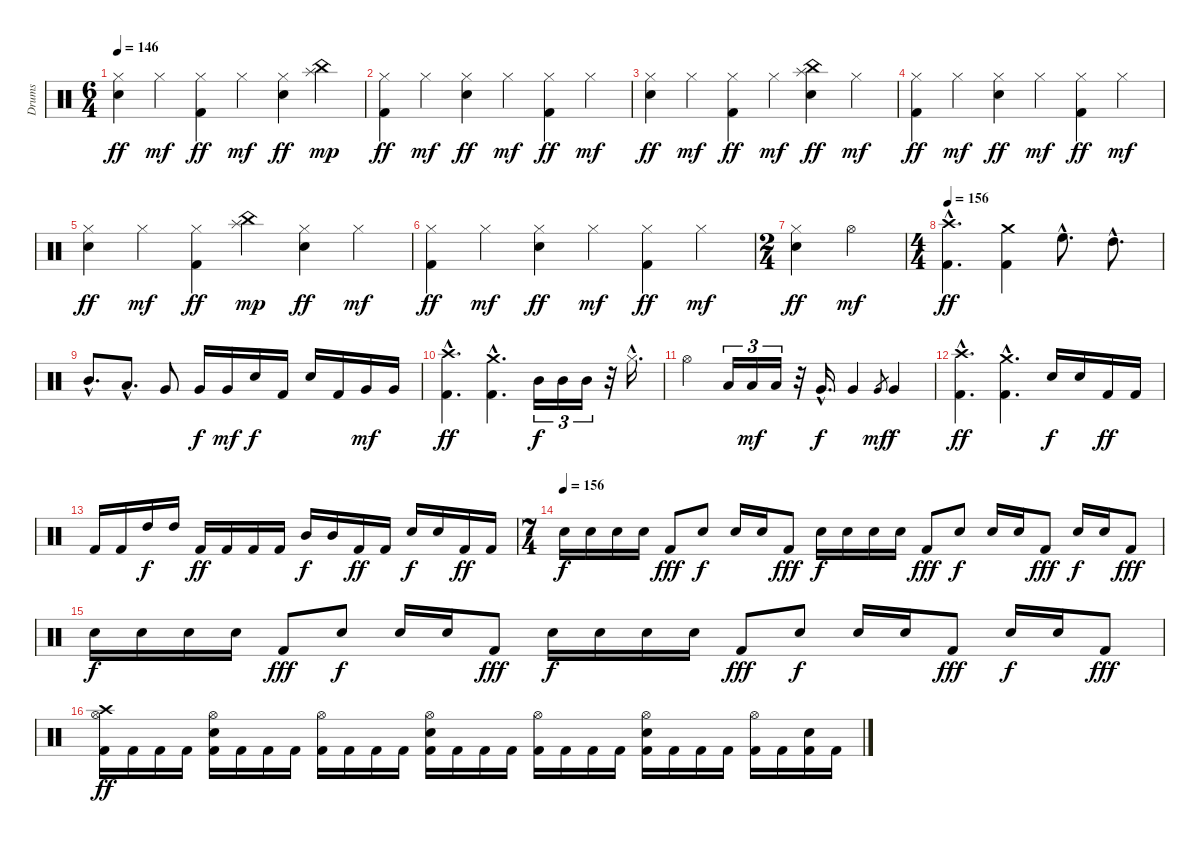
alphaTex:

\track ("Drums" "Drums") {instrument percussion}
\staff {score}
\articulation defaults
\ts (6 4)
\tempo 146
\clef neutral
\ks c
("Hi-Hat (closed)" "Electric Snare (hit)").4{dy ff} "Hi-Hat (closed)".4{dy mf} ("Hi-Hat (closed)" "Kick (hit) 2").4{dy ff} "Hi-Hat (closed)".4{dy mf} ("Hi-Hat (closed)" "Electric Snare (hit)").4{dy ff} ("Splash (hit)" "China (hit)").4{dy mp} |
("Hi-Hat (closed)" "Kick (hit) 2").4{dy ff} "Hi-Hat (closed)".4{dy mf} ("Hi-Hat (closed)" "Electric Snare (hit)").4{dy ff} "Hi-Hat (closed)".4{dy mf} ("Hi-Hat (closed)" "Kick (hit) 2").4{dy ff} "Hi-Hat (closed)".4{dy mf} |
("Hi-Hat (closed)" "Electric Snare (hit)").4{dy ff} "Hi-Hat (closed)".4{dy mf} ("Hi-Hat (closed)" "Kick (hit) 2").4{dy ff} "Hi-Hat (closed)".4{dy mf} ("Splash (hit)" "China (hit)" "Electric Snare (hit)").4{dy ff} "Hi-Hat (closed)".4{dy mf} |
("Hi-Hat (closed)" "Kick (hit) 2").4{dy ff} "Hi-Hat (closed)".4{dy mf} ("Hi-Hat (closed)" "Electric Snare (hit)").4{dy ff} "Hi-Hat (closed)".4{dy mf} ("Hi-Hat (closed)" "Kick (hit) 2").4{dy ff} "Hi-Hat (closed)".4{dy mf} |
("Hi-Hat (closed)" "Electric Snare (hit)").4{dy ff} "Hi-Hat (closed)".4{dy mf} ("Hi-Hat (closed)" "Kick (hit) 2").4{dy ff} ("Splash (hit)" "China (hit)").4{dy mp} ("Hi-Hat (closed)" "Electric Snare (hit)").4{dy ff} "Hi-Hat (closed)".4{dy mf} |
("Hi-Hat (closed)" "Kick (hit) 2").4{dy ff} "Hi-Hat (closed)".4{dy mf} ("Hi-Hat (closed)" "Electric Snare (hit)").4{dy ff} "Hi-Hat (closed)".4{dy mf} ("Hi-Hat (closed)" "Kick (hit) 2").4{dy ff} "Hi-Hat (closed)".4{dy mf} |
\ts (2 4)
("Hi-Hat (closed)" "Electric Snare (hit)").4{dy ff} "Hi-Hat (open)".4{dy mf} |
\ts (4 4)
\tempo 156
("Crash high (hit)"{hac} "Kick (hit) 2"{hac}).4{d dy ff} ("Crash medium (hit)" "Kick (hit) 2").4 "High Floor Tom (hit)"{hac}.8{d} "High Tom (hit)"{hac}.8{d} |
"Mid Tom (hit)"{hac}.8{d} "Low Tom (hit)"{hac}.8{d} "Very Low Tom (hit)".8 "Very Low Tom (hit)".16{dy f} "Very Low Tom (hit)".16{dy mf} "Electric Snare (hit)".16{dy f} "Kick (hit) 2".16 "Electric Snare (hit)".16 "Kick (hit) 2".16 "Very Low Tom (hit)".16{dy mf} "Very Low Tom (hit)".16 |
("Crash high (hit)"{hac} "Kick (hit) 2"{hac}).4{d dy ff} ("Crash medium (hit)"{hac} "Kick (hit) 2"{hac}).4{d} "Mid Tom (hit)".16{tu (3 2) dy f} "Mid Tom (hit)".16{tu (3 2)} "Mid Tom (hit)".16{tu (3 2)} r.32 "Hi-Hat (closed)"{hac}.16{d} |
"Hi-Hat (open)".4 "Low Tom (hit)".16{tu (3 2)} "Low Tom (hit)".16{tu (3 2) dy mf} "Low Tom (hit)".16{tu (3 2)} r.32 "Very Low Tom (hit)"{hac}.16{d dy f} "Very Low Tom (hit)".4 "Very Low Tom (hit)".8{gr dy mf} "Very Low Tom (hit)".4{dy f} |
("Crash high (hit)"{hac} "Kick (hit) 2"{hac}).4{d dy ff} ("Crash medium (hit)"{hac} "Kick (hit) 2"{hac}).4{d} "Electric Snare (hit)".16{dy f} "Electric Snare (hit)".16 "Kick (hit) 2".16{dy ff} "Kick (hit) 2".16 |
"Kick (hit) 2".16 "Kick (hit) 2".16 "High Tom (hit)".16{dy f} "High Tom (hit)".16 "Kick (hit) 2".16{dy ff} "Kick (hit) 2".16 "Kick (hit) 2".16 "Kick (hit) 2".16 "Mid Tom (hit)".16{dy f} "Mid Tom (hit)".16 "Kick (hit) 2".16{dy ff} "Kick (hit) 2".16 "Electric Snare (hit)".16{dy f} "Electric Snare (hit)".16 "Kick (hit) 2".16{dy ff} "Kick (hit) 2".16 |
\ts (7 4)
\tempo (156)
"Electric Snare (hit)".16{dy f volume 14} "Electric Snare (hit)".16 "Electric Snare (hit)".16 "Electric Snare (hit)".16 "Kick (hit) 2".8{dy fff} "Electric Snare (hit)".8{dy f} "Electric Snare (hit)".16 "Electric Snare (hit)".16 "Kick (hit) 2".8{dy fff} "Electric Snare (hit)".16{dy f} "Electric Snare (hit)".16 "Electric Snare (hit)".16 "Electric Snare (hit)".16 "Kick (hit) 2".8{dy fff} "Electric Snare (hit)".8{dy f} "Electric Snare (hit)".16 "Electric Snare (hit)".16 "Kick (hit) 2".8{dy fff} "Electric Snare (hit)".16{dy f} "Electric Snare (hit)".16 "Kick (hit) 2".8{dy fff} |
"Electric Snare (hit)".16{dy f} "Electric Snare (hit)".16 "Electric Snare (hit)".16 "Electric Snare (hit)".16 "Kick (hit) 2".8{dy fff} "Electric Snare (hit)".8{dy f} "Electric Snare (hit)".16 "Electric Snare (hit)".16 "Kick (hit) 2".8{dy fff} "Electric Snare (hit)".16{dy f} "Electric Snare (hit)".16 "Electric Snare (hit)".16 "Electric Snare (hit)".16 "Kick (hit) 2".8{dy fff} "Electric Snare (hit)".8{dy f} "Electric Snare (hit)".16 "Electric Snare (hit)".16 "Kick (hit) 2".8{dy fff} "Electric Snare (hit)".16{dy f} "Electric Snare (hit)".16 "Kick (hit) 2".8{dy fff} |
("Crash high (hit)" "Hi-Hat (open)" "Kick (hit) 2").16{dy ff} "Kick (hit) 2".16 "Kick (hit) 2".16 "Kick (hit) 2".16 ("Hi-Hat (open)" "Electric Snare (hit)" "Kick (hit) 2").16 "Kick (hit) 2".16 "Kick (hit) 2".16 "Kick (hit) 2".16 ("Hi-Hat (open)" "Kick (hit) 2").16 "Kick (hit) 2".16 "Kick (hit) 2".16 "Kick (hit) 2".16 ("Hi-Hat (open)" "Electric Snare (hit)" "Kick (hit) 2").16 "Kick (hit) 2".16 "Kick (hit) 2".16 "Kick (hit) 2".16 ("Hi-Hat (open)" "Kick (hit) 2").16 "Kick (hit) 2".16 "Kick (hit) 2".16 "Kick (hit) 2".16 ("Hi-Hat (open)" "Electric Snare (hit)" "Kick (hit) 2").16 "Kick (hit) 2".16 "Kick (hit) 2".16 "Kick (hit) 2".16 ("Hi-Hat (open)" "Kick (hit) 2").16 "Kick (hit) 2".16 ("Electric Snare (hit)" "Kick (hit) 2").16 "Kick (hit) 2".16
